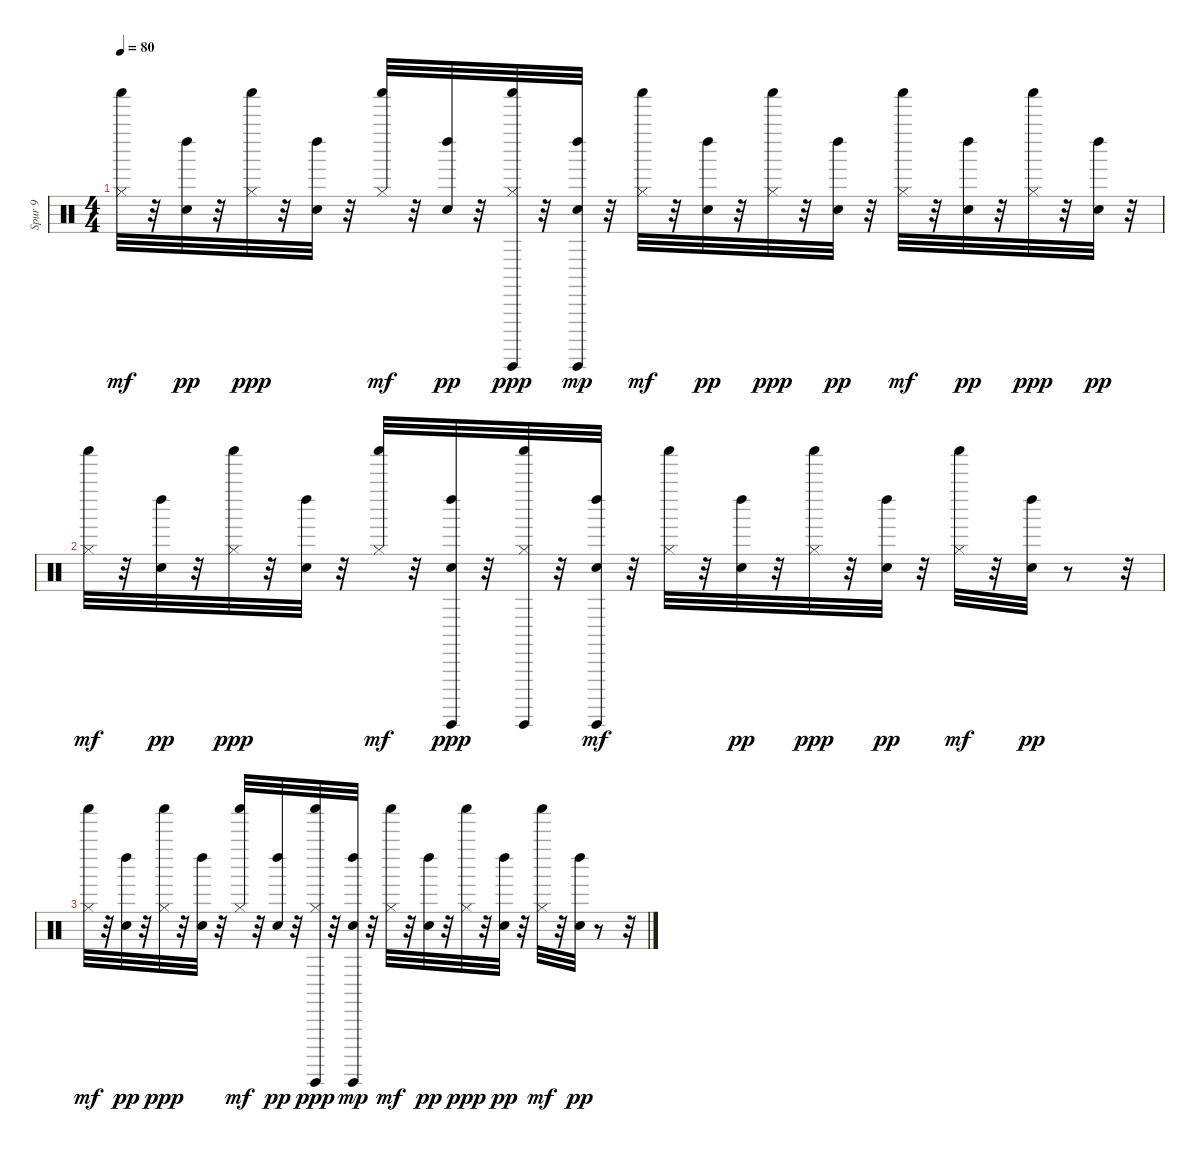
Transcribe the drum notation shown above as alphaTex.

\track ("Spur 9" "Spur 9") {instrument percussion}
\staff {score}
\articulation defaults
\ts (4 4)
\tempo 80
\clef neutral
\ks c
("Hi-Hat (closed)" "Shaker (hit)").32{dy mf} r.32 ("Snare (hit)" "Left Maraca (hit)").32{dy pp} r.32 ("Hi-Hat (closed)" "Shaker (hit)").32{dy ppp} r.32 ("Snare (hit)" "Left Maraca (hit)").32 r.32 ("Hi-Hat (closed)" "Shaker (hit)").32{dy mf} r.32 ("Snare (hit)" "Left Maraca (hit)").32{dy pp} r.32 ("Hi-Hat (closed)" "Guiro (hit)" "Shaker (hit)").32{dy ppp} r.32 ("Snare (hit)" "Left Maraca (hit)" "Guiro (hit)").32{dy mp} r.32 ("Hi-Hat (closed)" "Shaker (hit)").32{dy mf} r.32 ("Snare (hit)" "Left Maraca (hit)").32{dy pp} r.32 ("Hi-Hat (closed)" "Shaker (hit)").32{dy ppp} r.32 ("Snare (hit)" "Left Maraca (hit)").32{dy pp} r.32 ("Hi-Hat (closed)" "Shaker (hit)").32{dy mf} r.32 ("Snare (hit)" "Left Maraca (hit)").32{dy pp} r.32 ("Hi-Hat (closed)" "Shaker (hit)").32{dy ppp} r.32 ("Snare (hit)" "Left Maraca (hit)").32{dy pp} r.32 |
("Hi-Hat (closed)" "Shaker (hit)").32{dy mf} r.32 ("Snare (hit)" "Left Maraca (hit)").32{dy pp} r.32 ("Hi-Hat (closed)" "Shaker (hit)").32{dy ppp} r.32 ("Snare (hit)" "Left Maraca (hit)").32 r.32 ("Hi-Hat (closed)" "Shaker (hit)").32{dy mf} r.32 ("Snare (hit)" "Left Maraca (hit)" "Guiro (hit)").32{dy ppp} r.32 ("Hi-Hat (closed)" "Guiro (hit)" "Shaker (hit)").32 r.32 ("Snare (hit)" "Left Maraca (hit)" "Guiro (hit)").32{dy mf} r.32 ("Hi-Hat (closed)" "Shaker (hit)").32 r.32 ("Snare (hit)" "Left Maraca (hit)").32{dy pp} r.32 ("Hi-Hat (closed)" "Shaker (hit)").32{dy ppp} r.32 ("Snare (hit)" "Left Maraca (hit)").32{dy pp} r.32 ("Hi-Hat (closed)" "Shaker (hit)").32{dy mf} r.32 ("Snare (hit)" "Left Maraca (hit)").32{dy pp} r.8 r.32 |
("Hi-Hat (closed)" "Shaker (hit)").32{dy mf} r.32 ("Snare (hit)" "Left Maraca (hit)").32{dy pp} r.32 ("Hi-Hat (closed)" "Shaker (hit)").32{dy ppp} r.32 ("Snare (hit)" "Left Maraca (hit)").32 r.32 ("Hi-Hat (closed)" "Shaker (hit)").32{dy mf} r.32 ("Snare (hit)" "Left Maraca (hit)").32{dy pp} r.32 ("Hi-Hat (closed)" "Guiro (hit)" "Shaker (hit)").32{dy ppp} r.32 ("Snare (hit)" "Left Maraca (hit)" "Guiro (hit)").32{dy mp} r.32 ("Hi-Hat (closed)" "Shaker (hit)").32{dy mf} r.32 ("Snare (hit)" "Left Maraca (hit)").32{dy pp} r.32 ("Hi-Hat (closed)" "Shaker (hit)").32{dy ppp} r.32 ("Snare (hit)" "Left Maraca (hit)").32{dy pp} r.32 ("Hi-Hat (closed)" "Shaker (hit)").32{dy mf} r.32 ("Snare (hit)" "Left Maraca (hit)").32{dy pp} r.8 r.32
